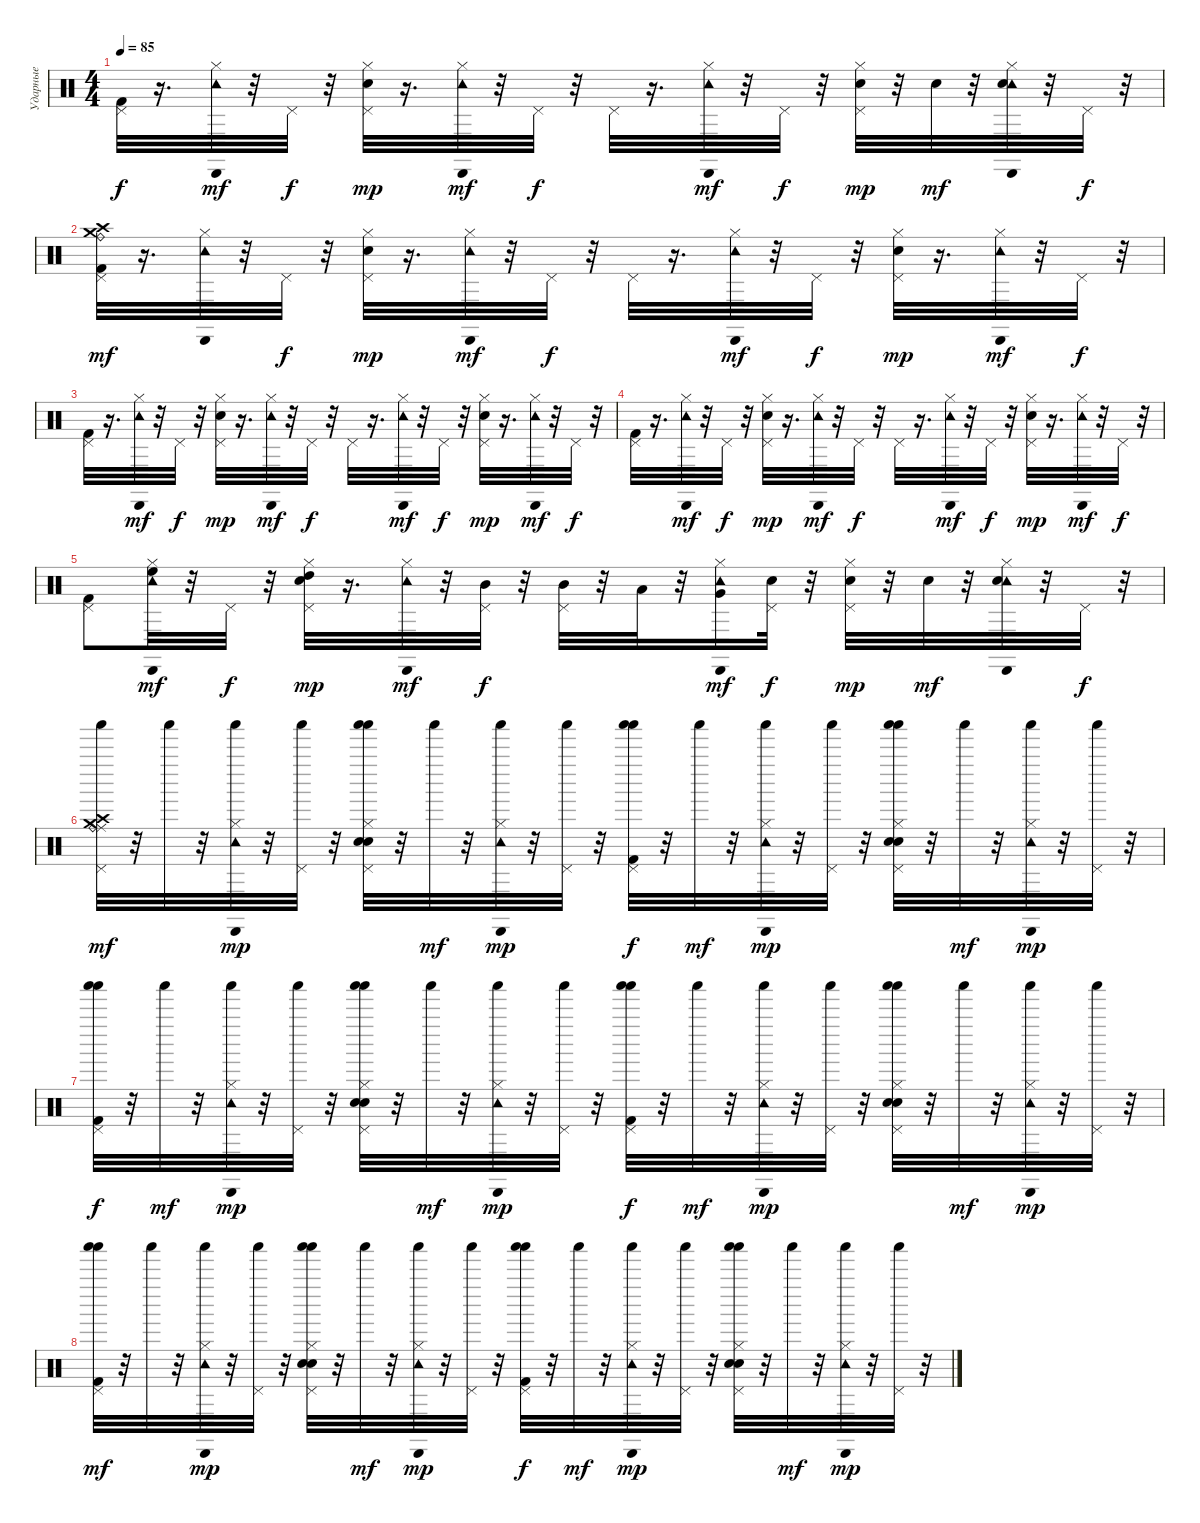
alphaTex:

\track ("Ударные" "Ударные") {instrument percussion}
\staff {score}
\articulation defaults
\ts (4 4)
\tempo 85
\clef neutral
\ks c
("Pedal Hi-Hat (hit)" "Kick (hit) 2").32{dy f} r.16{d} ("Hi-Hat (closed)" "Cabasa (hit)" "Tambourine (hit)").32{dy mf} r.32 "Pedal Hi-Hat (hit)".32{dy f} r.32 ("Hi-Hat (closed)" "Pedal Hi-Hat (hit)" "Electric Snare (hit)").32{dy mp} r.16{d} ("Hi-Hat (closed)" "Cabasa (hit)" "Tambourine (hit)").32{dy mf} r.32 "Pedal Hi-Hat (hit)".32{dy f} r.32 "Pedal Hi-Hat (hit)".32 r.16{d} ("Hi-Hat (closed)" "Cabasa (hit)" "Tambourine (hit)").32{dy mf} r.32 "Pedal Hi-Hat (hit)".32{dy f} r.32 ("Hi-Hat (closed)" "Pedal Hi-Hat (hit)" "Electric Snare (hit)").32{dy mp} r.32 "Snare (hit) 2".32{dy mf} r.32 ("Hi-Hat (closed)" "Cabasa (hit)" "Tambourine (hit)" "Snare (hit) 2").32 r.32 "Pedal Hi-Hat (hit)".32{dy f} r.32 |
("Ride (bell)" "Crash high (hit)" "Crash medium (hit)" "Pedal Hi-Hat (hit)" "Kick (hit) 2").32{dy mf} r.16{d} ("Hi-Hat (closed)" "Cabasa (hit)" "Tambourine (hit)").32 r.32 "Pedal Hi-Hat (hit)".32{dy f} r.32 ("Hi-Hat (closed)" "Pedal Hi-Hat (hit)" "Electric Snare (hit)").32{dy mp} r.16{d} ("Hi-Hat (closed)" "Cabasa (hit)" "Tambourine (hit)").32{dy mf} r.32 "Pedal Hi-Hat (hit)".32{dy f} r.32 "Pedal Hi-Hat (hit)".32 r.16{d} ("Hi-Hat (closed)" "Cabasa (hit)" "Tambourine (hit)").32{dy mf} r.32 "Pedal Hi-Hat (hit)".32{dy f} r.32 ("Hi-Hat (closed)" "Pedal Hi-Hat (hit)" "Electric Snare (hit)").32{dy mp} r.16{d} ("Hi-Hat (closed)" "Cabasa (hit)" "Tambourine (hit)").32{dy mf} r.32 "Pedal Hi-Hat (hit)".32{dy f} r.32 |
("Pedal Hi-Hat (hit)" "Kick (hit) 2").32 r.16{d} ("Hi-Hat (closed)" "Cabasa (hit)" "Tambourine (hit)").32{dy mf} r.32 "Pedal Hi-Hat (hit)".32{dy f} r.32 ("Hi-Hat (closed)" "Pedal Hi-Hat (hit)" "Electric Snare (hit)").32{dy mp} r.16{d} ("Hi-Hat (closed)" "Cabasa (hit)" "Tambourine (hit)").32{dy mf} r.32 "Pedal Hi-Hat (hit)".32{dy f} r.32 "Pedal Hi-Hat (hit)".32 r.16{d} ("Hi-Hat (closed)" "Cabasa (hit)" "Tambourine (hit)").32{dy mf} r.32 "Pedal Hi-Hat (hit)".32{dy f} r.32 ("Hi-Hat (closed)" "Pedal Hi-Hat (hit)" "Electric Snare (hit)").32{dy mp} r.16{d} ("Hi-Hat (closed)" "Cabasa (hit)" "Tambourine (hit)").32{dy mf} r.32 "Pedal Hi-Hat (hit)".32{dy f} r.32 |
("Pedal Hi-Hat (hit)" "Kick (hit) 2").32 r.16{d} ("Hi-Hat (closed)" "Cabasa (hit)" "Tambourine (hit)").32{dy mf} r.32 "Pedal Hi-Hat (hit)".32{dy f} r.32 ("Hi-Hat (closed)" "Pedal Hi-Hat (hit)" "Electric Snare (hit)").32{dy mp} r.16{d} ("Hi-Hat (closed)" "Cabasa (hit)" "Tambourine (hit)").32{dy mf} r.32 "Pedal Hi-Hat (hit)".32{dy f} r.32 "Pedal Hi-Hat (hit)".32 r.16{d} ("Hi-Hat (closed)" "Cabasa (hit)" "Tambourine (hit)").32{dy mf} r.32 "Pedal Hi-Hat (hit)".32{dy f} r.32 ("Hi-Hat (closed)" "Pedal Hi-Hat (hit)" "Electric Snare (hit)").32{dy mp} r.16{d} ("Hi-Hat (closed)" "Cabasa (hit)" "Tambourine (hit)").32{dy mf} r.32 "Pedal Hi-Hat (hit)".32{dy f} r.32 |
("Pedal Hi-Hat (hit)" "Kick (hit) 2").8 ("High Floor Tom (hit)" "Hi-Hat (closed)" "Cabasa (hit)" "Tambourine (hit)").32{dy mf} r.32 "Pedal Hi-Hat (hit)".32{dy f} r.32 ("High Tom (hit)" "Hi-Hat (closed)" "Pedal Hi-Hat (hit)" "Electric Snare (hit)").32{dy mp} r.16{d} ("Hi-Hat (closed)" "Cabasa (hit)" "Tambourine (hit)").32{dy mf} r.32 ("Mid Tom (hit)" "Pedal Hi-Hat (hit)").32{dy f} r.32 ("Mid Tom (hit)" "Pedal Hi-Hat (hit)").32 r.32 "Low Tom (hit)".32 r.32 ("Hi-Hat (closed)" "Cabasa (hit)" "Very Low Tom (hit)" "Tambourine (hit)").16{dy mf} ("Pedal Hi-Hat (hit)" "Snare (hit) 2").32{dy f} r.32 ("Hi-Hat (closed)" "Pedal Hi-Hat (hit)" "Electric Snare (hit)").32{dy mp} r.32 "Snare (hit) 2".32{dy mf} r.32 ("Hi-Hat (closed)" "Cabasa (hit)" "Tambourine (hit)" "Snare (hit) 2").32 r.32 "Pedal Hi-Hat (hit)".32{dy f} r.32 |
("Ride (middle)" "Ride (bell)" "Crash high (hit)" "Crash medium (hit)" "Pedal Hi-Hat (hit)" "Shaker (hit)").32{dy mf} r.32 "Shaker (hit)".32 r.32 ("Hi-Hat (closed)" "Cabasa (hit)" "Shaker (hit)" "Tambourine (hit)").32{dy mp} r.32 ("Pedal Hi-Hat (hit)" "Shaker (hit)").32 r.32 ("Hi-Hat (closed)" "Pedal Hi-Hat (hit)" "Shaker (hit)" "Shaker (hit)" "Snare (hit) 2" "Electric Snare (hit)").32 r.32 "Shaker (hit)".32{dy mf} r.32 ("Hi-Hat (closed)" "Cabasa (hit)" "Shaker (hit)" "Tambourine (hit)").32{dy mp} r.32 ("Pedal Hi-Hat (hit)" "Shaker (hit)").32 r.32 ("Pedal Hi-Hat (hit)" "Shaker (hit)" "Shaker (hit)" "Kick (hit) 2").32{dy f} r.32 "Shaker (hit)".32{dy mf} r.32 ("Hi-Hat (closed)" "Cabasa (hit)" "Shaker (hit)" "Tambourine (hit)").32{dy mp} r.32 ("Pedal Hi-Hat (hit)" "Shaker (hit)").32 r.32 ("Hi-Hat (closed)" "Pedal Hi-Hat (hit)" "Shaker (hit)" "Shaker (hit)" "Snare (hit) 2" "Electric Snare (hit)").32 r.32 "Shaker (hit)".32{dy mf} r.32 ("Hi-Hat (closed)" "Cabasa (hit)" "Shaker (hit)" "Tambourine (hit)").32{dy mp} r.32 ("Pedal Hi-Hat (hit)" "Shaker (hit)").32 r.32 |
("Pedal Hi-Hat (hit)" "Shaker (hit)" "Shaker (hit)" "Kick (hit) 2").32{dy f} r.32 "Shaker (hit)".32{dy mf} r.32 ("Hi-Hat (closed)" "Cabasa (hit)" "Shaker (hit)" "Tambourine (hit)").32{dy mp} r.32 ("Pedal Hi-Hat (hit)" "Shaker (hit)").32 r.32 ("Hi-Hat (closed)" "Pedal Hi-Hat (hit)" "Shaker (hit)" "Shaker (hit)" "Snare (hit) 2" "Electric Snare (hit)").32 r.32 "Shaker (hit)".32{dy mf} r.32 ("Hi-Hat (closed)" "Cabasa (hit)" "Shaker (hit)" "Tambourine (hit)").32{dy mp} r.32 ("Pedal Hi-Hat (hit)" "Shaker (hit)").32 r.32 ("Pedal Hi-Hat (hit)" "Shaker (hit)" "Shaker (hit)" "Kick (hit) 2").32{dy f} r.32 "Shaker (hit)".32{dy mf} r.32 ("Hi-Hat (closed)" "Cabasa (hit)" "Shaker (hit)" "Tambourine (hit)").32{dy mp} r.32 ("Pedal Hi-Hat (hit)" "Shaker (hit)").32 r.32 ("Hi-Hat (closed)" "Pedal Hi-Hat (hit)" "Shaker (hit)" "Shaker (hit)" "Snare (hit) 2" "Electric Snare (hit)").32 r.32 "Shaker (hit)".32{dy mf} r.32 ("Hi-Hat (closed)" "Cabasa (hit)" "Shaker (hit)" "Tambourine (hit)").32{dy mp} r.32 ("Pedal Hi-Hat (hit)" "Shaker (hit)").32 r.32 |
("Pedal Hi-Hat (hit)" "Shaker (hit)" "Shaker (hit)" "Kick (hit) 2").32{dy mf} r.32 "Shaker (hit)".32 r.32 ("Hi-Hat (closed)" "Cabasa (hit)" "Shaker (hit)" "Tambourine (hit)").32{dy mp} r.32 ("Pedal Hi-Hat (hit)" "Shaker (hit)").32 r.32 ("Hi-Hat (closed)" "Pedal Hi-Hat (hit)" "Shaker (hit)" "Shaker (hit)" "Snare (hit) 2" "Electric Snare (hit)").32 r.32 "Shaker (hit)".32{dy mf} r.32 ("Hi-Hat (closed)" "Cabasa (hit)" "Shaker (hit)" "Tambourine (hit)").32{dy mp} r.32 ("Pedal Hi-Hat (hit)" "Shaker (hit)").32 r.32 ("Pedal Hi-Hat (hit)" "Shaker (hit)" "Shaker (hit)" "Kick (hit) 2").32{dy f} r.32 "Shaker (hit)".32{dy mf} r.32 ("Hi-Hat (closed)" "Cabasa (hit)" "Shaker (hit)" "Tambourine (hit)").32{dy mp} r.32 ("Pedal Hi-Hat (hit)" "Shaker (hit)").32 r.32 ("Hi-Hat (closed)" "Pedal Hi-Hat (hit)" "Shaker (hit)" "Shaker (hit)" "Snare (hit) 2" "Electric Snare (hit)").32 r.32 "Shaker (hit)".32{dy mf} r.32 ("Hi-Hat (closed)" "Cabasa (hit)" "Shaker (hit)" "Tambourine (hit)").32{dy mp} r.32 ("Pedal Hi-Hat (hit)" "Shaker (hit)").32 r.32
